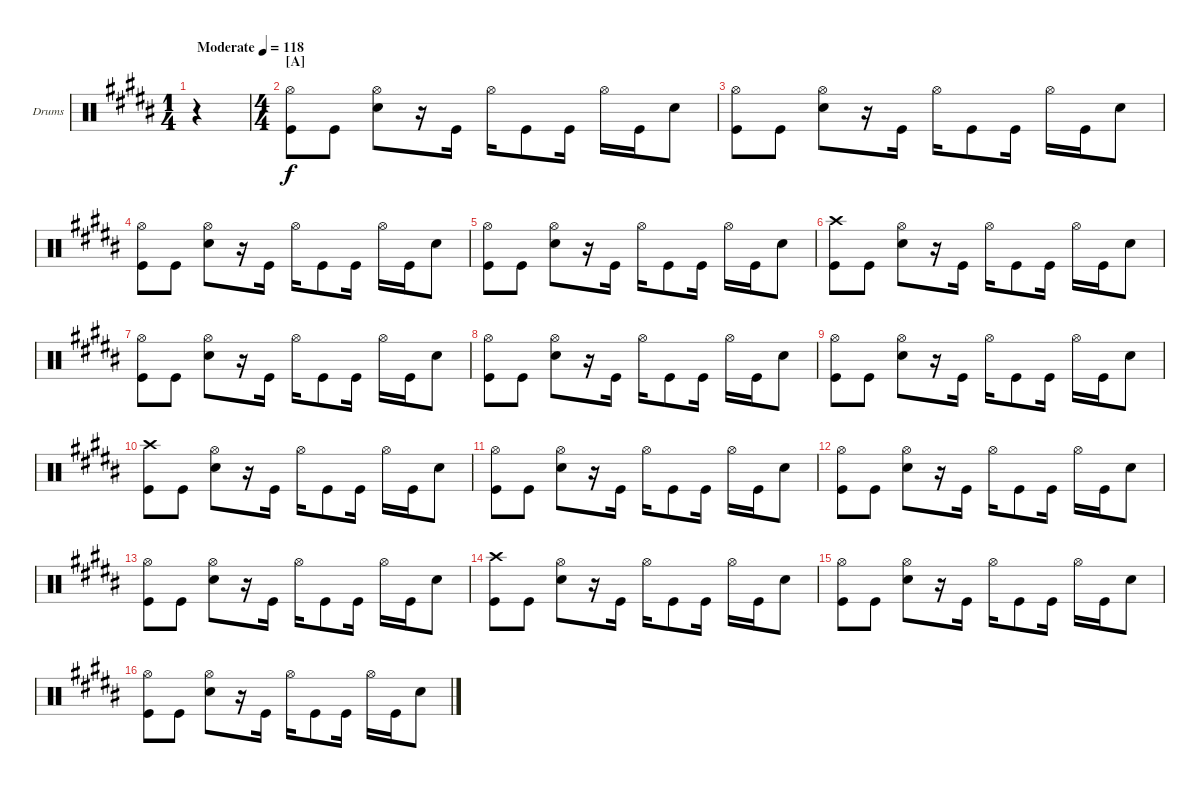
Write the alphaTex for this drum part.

\bracketExtendMode groupsimilarinstruments
\firstSystemTrackNameOrientation horizontal
\otherSystemsTrackNameOrientation horizontal
\track ("Fabrizio Moretti" "Drums") {instrument percussion}
\staff {score}
\articulation defaults
\ts (1 4)
\ac
\tempo (118 "Moderate")
\clef neutral
\ks b
r.4{dy f} |
\ts (4 4)
\section ("A" "")
("Hi-Hat (open)" "Kick (hit)").8 "Kick (hit)".8 ("Hi-Hat (open)" "Snare (hit) 2").8 r.16 "Kick (hit)".16 "Hi-Hat (open)".16 "Kick (hit)".8 "Kick (hit)".16 "Hi-Hat (open)".16 "Kick (hit)".16 "Snare (hit) 2".8 |
("Hi-Hat (open)" "Kick (hit)").8 "Kick (hit)".8 ("Hi-Hat (open)" "Snare (hit) 2").8 r.16 "Kick (hit)".16 "Hi-Hat (open)".16 "Kick (hit)".8 "Kick (hit)".16 "Hi-Hat (open)".16 "Kick (hit)".16 "Snare (hit) 2".8 |
("Hi-Hat (open)" "Kick (hit)").8 "Kick (hit)".8 ("Hi-Hat (open)" "Snare (hit) 2").8 r.16 "Kick (hit)".16 "Hi-Hat (open)".16 "Kick (hit)".8 "Kick (hit)".16 "Hi-Hat (open)".16 "Kick (hit)".16 "Snare (hit) 2".8 |
("Hi-Hat (open)" "Kick (hit)").8 "Kick (hit)".8 ("Hi-Hat (open)" "Snare (hit) 2").8 r.16 "Kick (hit)".16 "Hi-Hat (open)".16 "Kick (hit)".8 "Kick (hit)".16 "Hi-Hat (open)".16 "Kick (hit)".16 "Snare (hit) 2".8 |
("Kick (hit)" "Crash high (hit)").8 "Kick (hit)".8 ("Hi-Hat (open)" "Snare (hit) 2").8 r.16 "Kick (hit)".16 "Hi-Hat (open)".16 "Kick (hit)".8 "Kick (hit)".16 "Hi-Hat (open)".16 "Kick (hit)".16 "Snare (hit) 2".8 |
("Hi-Hat (open)" "Kick (hit)").8 "Kick (hit)".8 ("Hi-Hat (open)" "Snare (hit) 2").8 r.16 "Kick (hit)".16 "Hi-Hat (open)".16 "Kick (hit)".8 "Kick (hit)".16 "Hi-Hat (open)".16 "Kick (hit)".16 "Snare (hit) 2".8 |
("Hi-Hat (open)" "Kick (hit)").8 "Kick (hit)".8 ("Hi-Hat (open)" "Snare (hit) 2").8 r.16 "Kick (hit)".16 "Hi-Hat (open)".16 "Kick (hit)".8 "Kick (hit)".16 "Hi-Hat (open)".16 "Kick (hit)".16 "Snare (hit) 2".8 |
("Hi-Hat (open)" "Kick (hit)").8 "Kick (hit)".8 ("Hi-Hat (open)" "Snare (hit) 2").8 r.16 "Kick (hit)".16 "Hi-Hat (open)".16 "Kick (hit)".8 "Kick (hit)".16 "Hi-Hat (open)".16 "Kick (hit)".16 "Snare (hit) 2".8 |
("Kick (hit)" "Crash high (hit)").8 "Kick (hit)".8 ("Hi-Hat (open)" "Snare (hit) 2").8 r.16 "Kick (hit)".16 "Hi-Hat (open)".16 "Kick (hit)".8 "Kick (hit)".16 "Hi-Hat (open)".16 "Kick (hit)".16 "Snare (hit) 2".8 |
("Hi-Hat (open)" "Kick (hit)").8 "Kick (hit)".8 ("Hi-Hat (open)" "Snare (hit) 2").8 r.16 "Kick (hit)".16 "Hi-Hat (open)".16 "Kick (hit)".8 "Kick (hit)".16 "Hi-Hat (open)".16 "Kick (hit)".16 "Snare (hit) 2".8 |
("Hi-Hat (open)" "Kick (hit)").8 "Kick (hit)".8 ("Hi-Hat (open)" "Snare (hit) 2").8 r.16 "Kick (hit)".16 "Hi-Hat (open)".16 "Kick (hit)".8 "Kick (hit)".16 "Hi-Hat (open)".16 "Kick (hit)".16 "Snare (hit) 2".8 |
("Hi-Hat (open)" "Kick (hit)").8 "Kick (hit)".8 ("Hi-Hat (open)" "Snare (hit) 2").8 r.16 "Kick (hit)".16 "Hi-Hat (open)".16 "Kick (hit)".8 "Kick (hit)".16 "Hi-Hat (open)".16 "Kick (hit)".16 "Snare (hit) 2".8 |
("Kick (hit)" "Crash high (hit)").8 "Kick (hit)".8 ("Hi-Hat (open)" "Snare (hit) 2").8 r.16 "Kick (hit)".16 "Hi-Hat (open)".16 "Kick (hit)".8 "Kick (hit)".16 "Hi-Hat (open)".16 "Kick (hit)".16 "Snare (hit) 2".8 |
("Hi-Hat (open)" "Kick (hit)").8 "Kick (hit)".8 ("Hi-Hat (open)" "Snare (hit) 2").8 r.16 "Kick (hit)".16 "Hi-Hat (open)".16 "Kick (hit)".8 "Kick (hit)".16 "Hi-Hat (open)".16 "Kick (hit)".16 "Snare (hit) 2".8 |
("Hi-Hat (open)" "Kick (hit)").8 "Kick (hit)".8 ("Hi-Hat (open)" "Snare (hit) 2").8 r.16 "Kick (hit)".16 "Hi-Hat (open)".16 "Kick (hit)".8 "Kick (hit)".16 "Hi-Hat (open)".16 "Kick (hit)".16 "Snare (hit) 2".8
